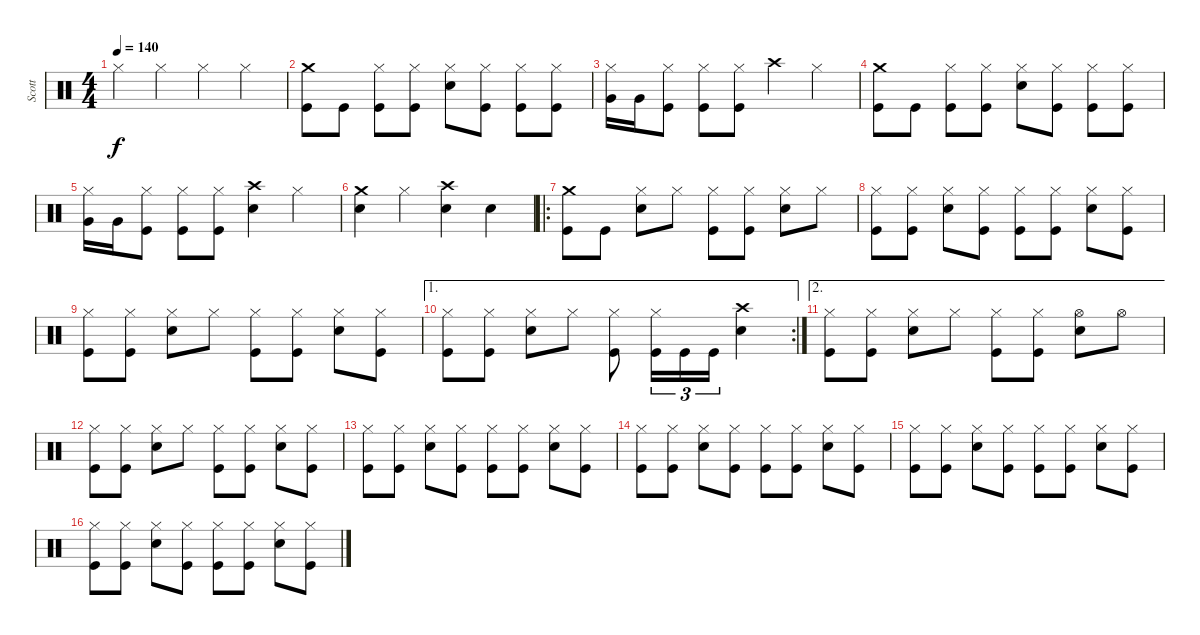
\track ("Scott" "Scott") {instrument percussion}
\staff {score}
\articulation defaults
\ts (4 4)
\tempo 140
\clef neutral
\ks c "Hi-Hat (closed)".4{dy f} "Hi-Hat (closed)".4 "Hi-Hat (closed)".4 "Hi-Hat (closed)".4
|
("Kick (hit)" "Crash medium (hit)").8 "Kick (hit)".8 ("Kick (hit)" "Hi-Hat (closed)").8 ("Kick (hit)" "Hi-Hat (closed)").8 ("Snare (hit) 2" "Hi-Hat (closed)").8 ("Kick (hit)" "Hi-Hat (closed)").8 ("Kick (hit)" "Hi-Hat (closed)").8 ("Kick (hit)" "Hi-Hat (closed)").8 |
("Very Low Tom (hit)" "Hi-Hat (closed)").16 "Very Low Tom (hit)".16 ("Kick (hit)" "Hi-Hat (closed)").8 ("Kick (hit)" "Hi-Hat (closed)").8 ("Kick (hit)" "Hi-Hat (closed)").8 "Crash high (hit)".4 "Hi-Hat (closed)".4 |
("Kick (hit)" "Crash medium (hit)").8 "Kick (hit)".8 ("Kick (hit)" "Hi-Hat (closed)").8 ("Kick (hit)" "Hi-Hat (closed)").8 ("Snare (hit) 2" "Hi-Hat (closed)").8 ("Kick (hit)" "Hi-Hat (closed)").8 ("Kick (hit)" "Hi-Hat (closed)").8 ("Kick (hit)" "Hi-Hat (closed)").8 |
("Very Low Tom (hit)" "Hi-Hat (closed)").16 "Very Low Tom (hit)".16 ("Kick (hit)" "Hi-Hat (closed)").8 ("Kick (hit)" "Hi-Hat (closed)").8 ("Kick (hit)" "Hi-Hat (closed)").8 ("Snare (hit) 2" "Crash high (hit)").4 "Hi-Hat (closed)".4 |
("Snare (hit) 2" "Crash medium (hit)").4 "Hi-Hat (closed)".4 ("Snare (hit) 2" "Crash high (hit)").4 "Snare (hit) 2".4 |
\ro
("Kick (hit)" "Crash medium (hit)").8 "Kick (hit)".8 ("Snare (hit) 2" "Hi-Hat (closed)").8 "Hi-Hat (closed)".8 ("Kick (hit)" "Hi-Hat (closed)").8 ("Kick (hit)" "Hi-Hat (closed)").8 ("Snare (hit) 2" "Hi-Hat (closed)").8 "Hi-Hat (closed)".8 |
("Kick (hit)" "Hi-Hat (closed)").8 ("Kick (hit)" "Hi-Hat (closed)").8 ("Snare (hit) 2" "Hi-Hat (closed)").8 ("Kick (hit)" "Hi-Hat (closed)").8 ("Kick (hit)" "Hi-Hat (closed)").8 ("Kick (hit)" "Hi-Hat (closed)").8 ("Snare (hit) 2" "Hi-Hat (closed)").8 ("Kick (hit)" "Hi-Hat (closed)").8 |
("Kick (hit)" "Hi-Hat (closed)").8 ("Kick (hit)" "Hi-Hat (closed)").8 ("Snare (hit) 2" "Hi-Hat (closed)").8 "Hi-Hat (closed)".8 ("Kick (hit)" "Hi-Hat (closed)").8 ("Kick (hit)" "Hi-Hat (closed)").8 ("Snare (hit) 2" "Hi-Hat (closed)").8 ("Kick (hit)" "Hi-Hat (closed)").8 |
\ae 1
\rc 2
("Kick (hit)" "Hi-Hat (closed)").8 ("Kick (hit)" "Hi-Hat (closed)").8 ("Snare (hit) 2" "Hi-Hat (closed)").8 "Hi-Hat (closed)".8 ("Kick (hit)" "Hi-Hat (closed)").8 ("Kick (hit)" "Hi-Hat (closed)").16{tu (3 2)} "Kick (hit)".16{tu (3 2)} "Kick (hit)".16{tu (3 2)} ("Snare (hit) 2" "Crash high (hit)").4 |
\ae 2
("Kick (hit)" "Hi-Hat (closed)").8 ("Kick (hit)" "Hi-Hat (closed)").8 ("Snare (hit) 2" "Hi-Hat (closed)").8 "Hi-Hat (closed)".8 ("Kick (hit)" "Hi-Hat (closed)").8 ("Kick (hit)" "Hi-Hat (closed)").8 ("Snare (hit) 2" "Hi-Hat (open)").8 "Hi-Hat (open)".8 |
("Kick (hit)" "Hi-Hat (closed)").8 ("Kick (hit)" "Hi-Hat (closed)").8 ("Snare (hit) 2" "Hi-Hat (closed)").8 "Hi-Hat (closed)".8 ("Kick (hit)" "Hi-Hat (closed)").8 ("Kick (hit)" "Hi-Hat (closed)").8 ("Snare (hit) 2" "Hi-Hat (closed)").8 ("Kick (hit)" "Hi-Hat (closed)").8 |
("Kick (hit)" "Hi-Hat (closed)").8 ("Kick (hit)" "Hi-Hat (closed)").8 ("Snare (hit) 2" "Hi-Hat (closed)").8 ("Kick (hit)" "Hi-Hat (closed)").8 ("Kick (hit)" "Hi-Hat (closed)").8 ("Kick (hit)" "Hi-Hat (closed)").8 ("Snare (hit) 2" "Hi-Hat (closed)").8 ("Kick (hit)" "Hi-Hat (closed)").8 |
("Kick (hit)" "Hi-Hat (closed)").8 ("Kick (hit)" "Hi-Hat (closed)").8 ("Snare (hit) 2" "Hi-Hat (closed)").8 ("Kick (hit)" "Hi-Hat (closed)").8 ("Kick (hit)" "Hi-Hat (closed)").8 ("Kick (hit)" "Hi-Hat (closed)").8 ("Snare (hit) 2" "Hi-Hat (closed)").8 ("Kick (hit)" "Hi-Hat (closed)").8 |
("Kick (hit)" "Hi-Hat (closed)").8 ("Kick (hit)" "Hi-Hat (closed)").8 ("Snare (hit) 2" "Hi-Hat (closed)").8 ("Kick (hit)" "Hi-Hat (closed)").8 ("Kick (hit)" "Hi-Hat (closed)").8 ("Kick (hit)" "Hi-Hat (closed)").8 ("Snare (hit) 2" "Hi-Hat (closed)").8 ("Kick (hit)" "Hi-Hat (closed)").8 |
("Kick (hit)" "Hi-Hat (closed)").8 ("Kick (hit)" "Hi-Hat (closed)").8 ("Snare (hit) 2" "Hi-Hat (closed)").8 ("Kick (hit)" "Hi-Hat (closed)").8 ("Kick (hit)" "Hi-Hat (closed)").8 ("Kick (hit)" "Hi-Hat (closed)").8 ("Snare (hit) 2" "Hi-Hat (closed)").8 ("Kick (hit)" "Hi-Hat (closed)").8
